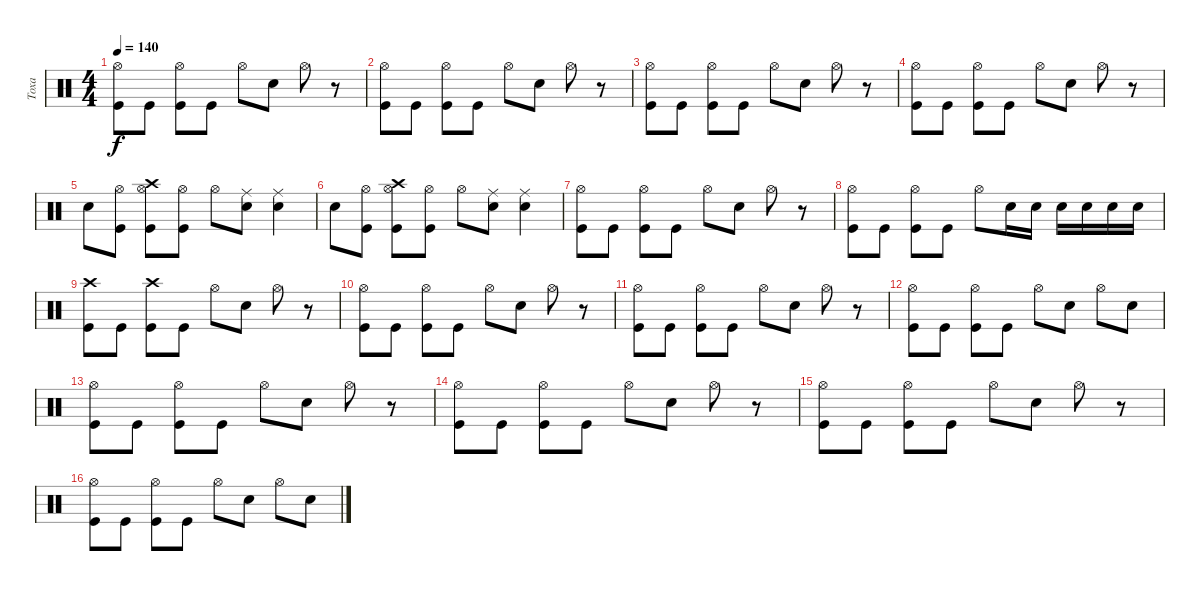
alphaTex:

\track ("Тоха" "Тоха") {instrument percussion}
\staff {score}
\articulation defaults
\ts (4 4)
\tempo 140
\clef neutral
\ks c
("Kick (hit)" "Hi-Hat (open)").8{dy f} "Kick (hit)".8 ("Kick (hit)" "Hi-Hat (open)").8 "Kick (hit)".8 "Hi-Hat (open)".8 "Snare (hit) 2".8 "Hi-Hat (open)".8 r.8 |
("Kick (hit)" "Hi-Hat (open)").8 "Kick (hit)".8 ("Kick (hit)" "Hi-Hat (open)").8 "Kick (hit)".8 "Hi-Hat (open)".8 "Snare (hit) 2".8 "Hi-Hat (open)".8 r.8 |
("Kick (hit)" "Hi-Hat (open)").8 "Kick (hit)".8 ("Kick (hit)" "Hi-Hat (open)").8 "Kick (hit)".8 "Hi-Hat (open)".8 "Snare (hit) 2".8 "Hi-Hat (open)".8 r.8 |
("Kick (hit)" "Hi-Hat (open)").8 "Kick (hit)".8 ("Kick (hit)" "Hi-Hat (open)").8 "Kick (hit)".8 "Hi-Hat (open)".8 "Snare (hit) 2".8 "Hi-Hat (open)".8 r.8 |
"Snare (hit) 2".8 ("Kick (hit)" "Hi-Hat (open)").8 ("Kick (hit)" "Hi-Hat (open)" "Crash high (hit)").8 ("Kick (hit)" "Hi-Hat (open)").8 "Hi-Hat (open)".8 ("Snare (hit) 2" "Ride (middle)").8 ("Snare (hit) 2" "Ride (middle)").4 |
"Snare (hit) 2".8 ("Kick (hit)" "Hi-Hat (open)").8 ("Kick (hit)" "Hi-Hat (open)" "Crash high (hit)").8 ("Kick (hit)" "Hi-Hat (open)").8 "Hi-Hat (open)".8 ("Snare (hit) 2" "Ride (middle)").8 ("Snare (hit) 2" "Ride (middle)").4 |
("Kick (hit)" "Hi-Hat (open)").8 "Kick (hit)".8 ("Kick (hit)" "Hi-Hat (open)").8 "Kick (hit)".8 "Hi-Hat (open)".8 "Snare (hit) 2".8 "Hi-Hat (open)".8 r.8 |
("Kick (hit)" "Hi-Hat (open)").8 "Kick (hit)".8 ("Kick (hit)" "Hi-Hat (open)").8 "Kick (hit)".8 "Hi-Hat (open)".8 "Snare (hit) 2".16 "Snare (hit) 2".16 "Snare (hit) 2".16 "Snare (hit) 2".16 "Snare (hit) 2".16 "Snare (hit) 2".16 |
("Kick (hit)" "Crash high (hit)").8 "Kick (hit)".8 ("Kick (hit)" "Crash high (hit)").8 "Kick (hit)".8 "Hi-Hat (open)".8 "Snare (hit) 2".8 "Hi-Hat (open)".8 r.8 |
("Kick (hit)" "Hi-Hat (open)").8 "Kick (hit)".8 ("Kick (hit)" "Hi-Hat (open)").8 "Kick (hit)".8 "Hi-Hat (open)".8 "Snare (hit) 2".8 "Hi-Hat (open)".8 r.8 |
("Kick (hit)" "Hi-Hat (open)").8 "Kick (hit)".8 ("Kick (hit)" "Hi-Hat (open)").8 "Kick (hit)".8 "Hi-Hat (open)".8 "Snare (hit) 2".8 "Hi-Hat (open)".8 r.8 |
("Kick (hit)" "Hi-Hat (open)").8 "Kick (hit)".8 ("Kick (hit)" "Hi-Hat (open)").8 "Kick (hit)".8 "Hi-Hat (open)".8 "Snare (hit) 2".8 "Hi-Hat (open)".8 "Snare (hit) 2".8 |
("Kick (hit)" "Hi-Hat (open)").8 "Kick (hit)".8 ("Kick (hit)" "Hi-Hat (open)").8 "Kick (hit)".8 "Hi-Hat (open)".8 "Snare (hit) 2".8 "Hi-Hat (open)".8 r.8 |
("Kick (hit)" "Hi-Hat (open)").8 "Kick (hit)".8 ("Kick (hit)" "Hi-Hat (open)").8 "Kick (hit)".8 "Hi-Hat (open)".8 "Snare (hit) 2".8 "Hi-Hat (open)".8 r.8 |
("Kick (hit)" "Hi-Hat (open)").8 "Kick (hit)".8 ("Kick (hit)" "Hi-Hat (open)").8 "Kick (hit)".8 "Hi-Hat (open)".8 "Snare (hit) 2".8 "Hi-Hat (open)".8 r.8 |
("Kick (hit)" "Hi-Hat (open)").8 "Kick (hit)".8 ("Kick (hit)" "Hi-Hat (open)").8 "Kick (hit)".8 "Hi-Hat (open)".8 "Snare (hit) 2".8 "Hi-Hat (open)".8 "Snare (hit) 2".8
